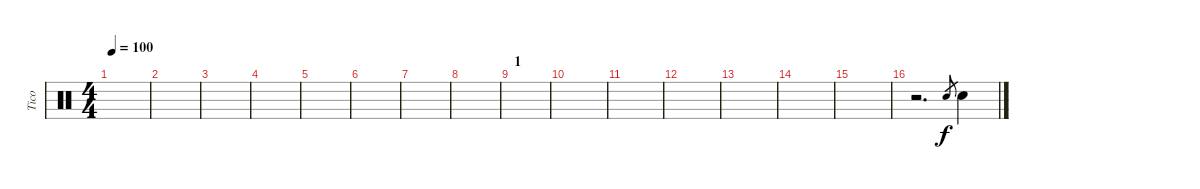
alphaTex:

\track ("Tico" "Tico") {instrument percussion}
\staff {score}
\articulation defaults
\ts (4 4)
\tempo 100
\clef neutral
\ks c
|
|
|
|
|
|
|
|
\section ("" "1")
|
|
|
|
|
|
|
r.2{d} "Snare (hit) 2".8{gr} "Snare (hit) 2".4
